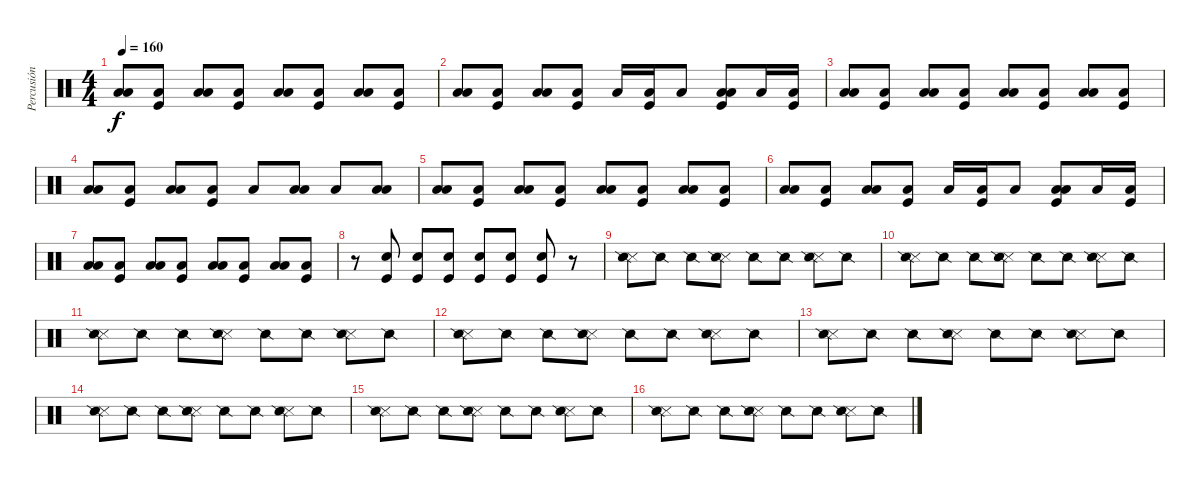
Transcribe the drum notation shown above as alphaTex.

\track ("Percusión" "Percusión") {instrument percussion}
\staff {score}
\articulation defaults
\ts (4 4)
\tempo 160
\clef neutral
\ks c
("Low Tom (hit)" "Low Floor Tom (hit)").8{dy f} ("Low Floor Tom (hit)" "Kick (hit)").8 ("Low Tom (hit)" "Low Floor Tom (hit)").8 ("Low Floor Tom (hit)" "Kick (hit)").8 ("Low Tom (hit)" "Low Floor Tom (hit)").8 ("Low Floor Tom (hit)" "Kick (hit)").8 ("Low Tom (hit)" "Low Floor Tom (hit)").8 ("Low Floor Tom (hit)" "Kick (hit)").8 |
("Low Tom (hit)" "Low Floor Tom (hit)").8 ("Low Floor Tom (hit)" "Kick (hit)").8 ("Low Tom (hit)" "Low Floor Tom (hit)").8 ("Low Floor Tom (hit)" "Kick (hit)").8 "Low Floor Tom (hit)".16 ("Low Tom (hit)" "Kick (hit)").16 "Low Floor Tom (hit)".8 ("Low Tom (hit)" "Low Floor Tom (hit)" "Kick (hit)").8 "Low Floor Tom (hit)".16 ("Low Tom (hit)" "Kick (hit)").16 |
("Low Tom (hit)" "Low Floor Tom (hit)").8 ("Low Floor Tom (hit)" "Kick (hit)").8 ("Low Tom (hit)" "Low Floor Tom (hit)").8 ("Low Floor Tom (hit)" "Kick (hit)").8 ("Low Tom (hit)" "Low Floor Tom (hit)").8 ("Low Floor Tom (hit)" "Kick (hit)").8 ("Low Tom (hit)" "Low Floor Tom (hit)").8 ("Low Floor Tom (hit)" "Kick (hit)").8 |
("Low Tom (hit)" "Low Floor Tom (hit)").8 ("Low Floor Tom (hit)" "Kick (hit)").8 ("Low Tom (hit)" "Low Floor Tom (hit)").8 ("Low Floor Tom (hit)" "Kick (hit)").8 "Low Floor Tom (hit)".8 ("Low Tom (hit)" "Low Floor Tom (hit)").8 "Low Floor Tom (hit)".8 ("Low Tom (hit)" "Low Floor Tom (hit)").8 |
("Low Tom (hit)" "Low Floor Tom (hit)").8 ("Low Floor Tom (hit)" "Kick (hit)").8 ("Low Tom (hit)" "Low Floor Tom (hit)").8 ("Low Floor Tom (hit)" "Kick (hit)").8 ("Low Tom (hit)" "Low Floor Tom (hit)").8 ("Low Floor Tom (hit)" "Kick (hit)").8 ("Low Tom (hit)" "Low Floor Tom (hit)").8 ("Low Floor Tom (hit)" "Kick (hit)").8 |
("Low Tom (hit)" "Low Floor Tom (hit)").8 ("Low Floor Tom (hit)" "Kick (hit)").8 ("Low Tom (hit)" "Low Floor Tom (hit)").8 ("Low Floor Tom (hit)" "Kick (hit)").8 "Low Floor Tom (hit)".16 ("Low Tom (hit)" "Kick (hit)").16 "Low Floor Tom (hit)".8 ("Low Tom (hit)" "Low Floor Tom (hit)" "Kick (hit)").8 "Low Floor Tom (hit)".16 ("Low Tom (hit)" "Kick (hit)").16 |
("Low Tom (hit)" "Low Floor Tom (hit)").8 ("Low Floor Tom (hit)" "Kick (hit)").8 ("Low Tom (hit)" "Low Floor Tom (hit)").8 ("Low Floor Tom (hit)" "Kick (hit)").8 ("Low Tom (hit)" "Low Floor Tom (hit)").8 ("Low Floor Tom (hit)" "Kick (hit)").8 ("Low Tom (hit)" "Low Floor Tom (hit)").8 ("Low Floor Tom (hit)" "Kick (hit)").8 |
r.8 ("Kick (hit)" "Electric Snare (hit)").8 ("Kick (hit)" "Electric Snare (hit)").8 ("Kick (hit)" "Electric Snare (hit)").8 ("Kick (hit)" "Electric Snare (hit)").8 ("Kick (hit)" "Electric Snare (hit)").8 ("Kick (hit)" "Electric Snare (hit)").8 r.8 |
("Snare (side stick) 3" "Snare (side stick) 2").8 "Snare (side stick) 2".8 "Snare (side stick) 2".8 ("Snare (side stick) 3" "Snare (side stick) 2").8 "Snare (side stick) 2".8 "Snare (side stick) 2".8 ("Snare (side stick) 3" "Snare (side stick) 2").8 "Snare (side stick) 2".8 |
("Snare (side stick) 3" "Snare (side stick) 2").8 "Snare (side stick) 2".8 "Snare (side stick) 2".8 ("Snare (side stick) 3" "Snare (side stick) 2").8 "Snare (side stick) 2".8 "Snare (side stick) 2".8 ("Snare (side stick) 3" "Snare (side stick) 2").8 "Snare (side stick) 2".8 |
("Snare (side stick) 3" "Snare (side stick) 2").8 "Snare (side stick) 2".8 "Snare (side stick) 2".8 ("Snare (side stick) 3" "Snare (side stick) 2").8 "Snare (side stick) 2".8 "Snare (side stick) 2".8 ("Snare (side stick) 3" "Snare (side stick) 2").8 "Snare (side stick) 2".8 |
("Snare (side stick) 3" "Snare (side stick) 2").8 "Snare (side stick) 2".8 "Snare (side stick) 2".8 ("Snare (side stick) 3" "Snare (side stick) 2").8 "Snare (side stick) 2".8 "Snare (side stick) 2".8 ("Snare (side stick) 3" "Snare (side stick) 2").8 "Snare (side stick) 2".8 |
("Snare (side stick) 3" "Snare (side stick) 2").8 "Snare (side stick) 2".8 "Snare (side stick) 2".8 ("Snare (side stick) 3" "Snare (side stick) 2").8 "Snare (side stick) 2".8 "Snare (side stick) 2".8 ("Snare (side stick) 3" "Snare (side stick) 2").8 "Snare (side stick) 2".8 |
("Snare (side stick) 3" "Snare (side stick) 2").8 "Snare (side stick) 2".8 "Snare (side stick) 2".8 ("Snare (side stick) 3" "Snare (side stick) 2").8 "Snare (side stick) 2".8 "Snare (side stick) 2".8 ("Snare (side stick) 3" "Snare (side stick) 2").8 "Snare (side stick) 2".8 |
("Snare (side stick) 3" "Snare (side stick) 2").8 "Snare (side stick) 2".8 "Snare (side stick) 2".8 ("Snare (side stick) 3" "Snare (side stick) 2").8 "Snare (side stick) 2".8 "Snare (side stick) 2".8 ("Snare (side stick) 3" "Snare (side stick) 2").8 "Snare (side stick) 2".8 |
("Snare (side stick) 3" "Snare (side stick) 2").8 "Snare (side stick) 2".8 "Snare (side stick) 2".8 ("Snare (side stick) 3" "Snare (side stick) 2").8 "Snare (side stick) 2".8 "Snare (side stick) 2".8 ("Snare (side stick) 3" "Snare (side stick) 2").8 "Snare (side stick) 2".8
